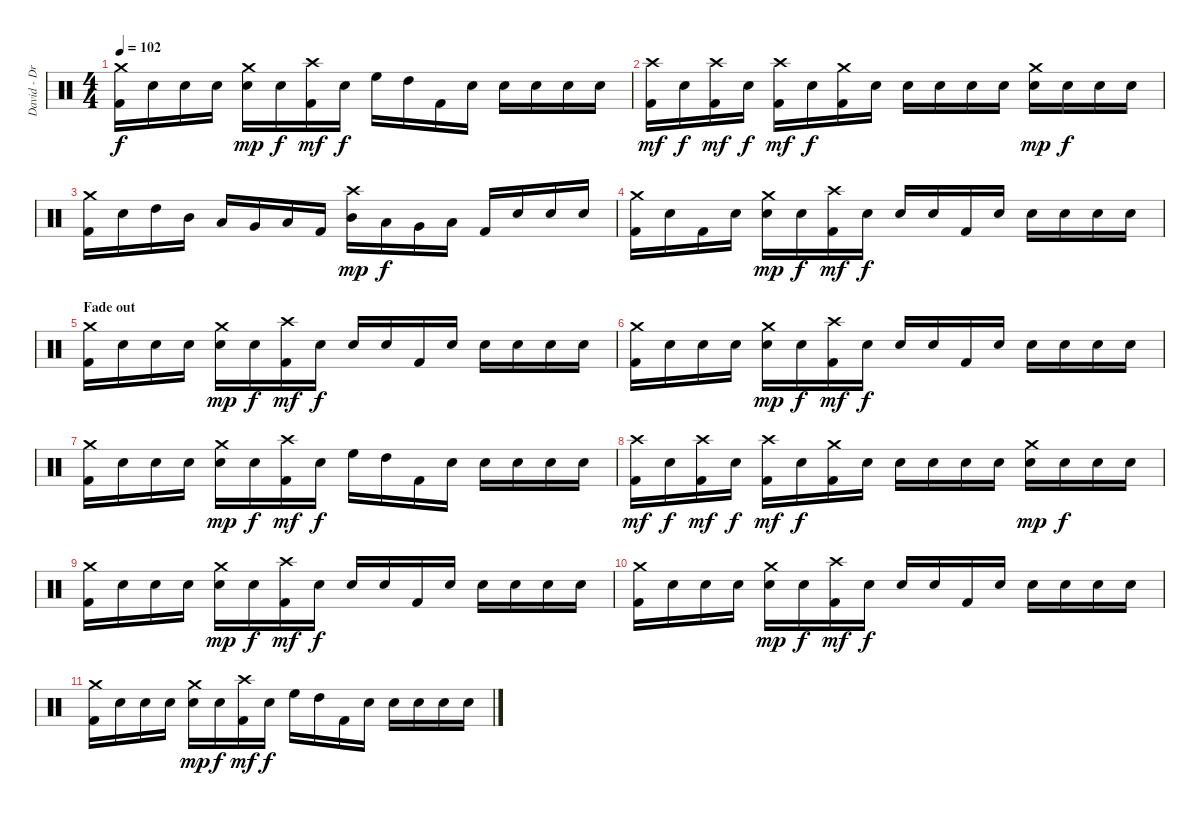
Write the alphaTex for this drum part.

\track ("David - Drums" "David - Dr") {instrument percussion}
\staff {score}
\articulation defaults
\ts (4 4)
\tempo 102
\clef neutral
\ks c
("Crash medium (hit)" "Kick (hit) 2").16{dy f} "Snare (hit)".16 "Snare (hit)".16 "Snare (hit)".16 ("Crash medium (hit)" "Electric Snare (hit)").16{dy mp} "Snare (hit)".16{dy f} ("Crash high (hit)" "Kick (hit) 2").16{dy mf} "Snare (hit)".16{dy f} "High Floor Tom (hit)".16 "High Tom (hit)".16 "Kick (hit) 2".16 "Snare (hit)".16 "Electric Snare (hit)".16 "Snare (hit)".16 "Snare (hit)".16 "Snare (hit)".16 |
("Crash high (hit)" "Kick (hit) 2").16{dy mf} "Snare (hit)".16{dy f} ("Crash high (hit)" "Kick (hit) 2").16{dy mf} "Snare (hit)".16{dy f} ("Crash high (hit)" "Kick (hit) 2").16{dy mf} "Snare (hit)".16{dy f} ("Crash medium (hit)" "Kick (hit) 2").16 "Snare (hit)".16 "Snare (hit)".16 "Snare (hit)".16 "Snare (hit)".16 "Snare (hit)".16 ("Crash medium (hit)" "Electric Snare (hit)").16{dy mp} "Snare (hit)".16{dy f} "Snare (hit)".16 "Snare (hit)".16 |
("Crash medium (hit)" "Kick (hit) 2").16 "Snare (hit)".16 "High Tom (hit)".16 "Mid Tom (hit)".16 "Low Tom (hit)".16 "Very Low Tom (hit)".16 "Low Floor Tom (hit)".16 "Kick (hit) 2".16 ("Crash high (hit)" "Mid Tom (hit)").16{dy mp} "Low Tom (hit)".16{dy f} "Very Low Tom (hit)".16 "Low Floor Tom (hit)".16 "Kick (hit) 2".16 "Snare (hit)".16 "Electric Snare (hit)".16 "Snare (hit)".16 |
("Crash medium (hit)" "Kick (hit) 2").16 "Snare (hit)".16 "Kick (hit) 2".16 "Snare (hit)".16 ("Crash medium (hit)" "Electric Snare (hit)").16{dy mp} "Snare (hit)".16{dy f} ("Crash high (hit)" "Kick (hit) 2").16{dy mf} "Snare (hit)".16{dy f} "Snare (hit)".16 "Snare (hit)".16 "Kick (hit) 2".16 "Snare (hit)".16 "Electric Snare (hit)".16 "Snare (hit)".16 "Snare (hit)".16 "Snare (hit)".16 |
\section ("" "Fade out")
("Crash medium (hit)" "Kick (hit) 2").16{volume 10} "Snare (hit)".16 "Snare (hit)".16 "Snare (hit)".16 ("Crash medium (hit)" "Electric Snare (hit)").16{dy mp} "Snare (hit)".16{dy f} ("Crash high (hit)" "Kick (hit) 2").16{dy mf} "Snare (hit)".16{dy f} "Snare (hit)".16 "Snare (hit)".16 "Kick (hit) 2".16 "Snare (hit)".16 "Electric Snare (hit)".16 "Snare (hit)".16 "Snare (hit)".16 "Snare (hit)".16 |
("Crash medium (hit)" "Kick (hit) 2").16 "Snare (hit)".16 "Snare (hit)".16 "Snare (hit)".16 ("Crash medium (hit)" "Electric Snare (hit)").16{dy mp} "Snare (hit)".16{dy f} ("Crash high (hit)" "Kick (hit) 2").16{dy mf} "Snare (hit)".16{dy f} "Snare (hit)".16 "Snare (hit)".16 "Kick (hit) 2".16 "Snare (hit)".16 "Electric Snare (hit)".16 "Snare (hit)".16 "Snare (hit)".16 "Snare (hit)".16 |
("Crash medium (hit)" "Kick (hit) 2").16{volume 6} "Snare (hit)".16 "Snare (hit)".16 "Snare (hit)".16 ("Crash medium (hit)" "Electric Snare (hit)").16{dy mp} "Snare (hit)".16{dy f} ("Crash high (hit)" "Kick (hit) 2").16{dy mf} "Snare (hit)".16{dy f} "High Floor Tom (hit)".16 "High Tom (hit)".16 "Kick (hit) 2".16 "Snare (hit)".16 "Electric Snare (hit)".16 "Snare (hit)".16 "Snare (hit)".16 "Snare (hit)".16 |
("Crash high (hit)" "Kick (hit) 2").16{dy mf} "Snare (hit)".16{dy f} ("Crash high (hit)" "Kick (hit) 2").16{dy mf} "Snare (hit)".16{dy f} ("Crash high (hit)" "Kick (hit) 2").16{dy mf} "Snare (hit)".16{dy f} ("Crash medium (hit)" "Kick (hit) 2").16 "Snare (hit)".16 "Snare (hit)".16 "Electric Snare (hit)".16 "Snare (hit)".16 "Snare (hit)".16 ("Crash medium (hit)" "Electric Snare (hit)").16{dy mp} "Snare (hit)".16{dy f} "Snare (hit)".16 "Snare (hit)".16 |
("Crash medium (hit)" "Kick (hit) 2").16{volume 0} "Snare (hit)".16 "Snare (hit)".16 "Snare (hit)".16 ("Crash medium (hit)" "Electric Snare (hit)").16{dy mp} "Snare (hit)".16{dy f} ("Crash high (hit)" "Kick (hit) 2").16{dy mf} "Snare (hit)".16{dy f} "Snare (hit)".16 "Snare (hit)".16 "Kick (hit) 2".16 "Snare (hit)".16 "Electric Snare (hit)".16 "Snare (hit)".16 "Snare (hit)".16 "Snare (hit)".16 |
("Crash medium (hit)" "Kick (hit) 2").16 "Snare (hit)".16 "Snare (hit)".16 "Snare (hit)".16 ("Crash medium (hit)" "Electric Snare (hit)").16{dy mp} "Snare (hit)".16{dy f} ("Crash high (hit)" "Kick (hit) 2").16{dy mf} "Snare (hit)".16{dy f} "Snare (hit)".16 "Snare (hit)".16 "Kick (hit) 2".16 "Snare (hit)".16 "Electric Snare (hit)".16 "Snare (hit)".16 "Snare (hit)".16 "Snare (hit)".16 |
("Crash medium (hit)" "Kick (hit) 2").16 "Snare (hit)".16 "Snare (hit)".16 "Snare (hit)".16 ("Crash medium (hit)" "Electric Snare (hit)").16{dy mp} "Snare (hit)".16{dy f} ("Crash high (hit)" "Kick (hit) 2").16{dy mf} "Snare (hit)".16{dy f} "High Floor Tom (hit)".16 "High Tom (hit)".16 "Kick (hit) 2".16 "Snare (hit)".16 "Electric Snare (hit)".16 "Snare (hit)".16 "Snare (hit)".16 "Snare (hit)".16
